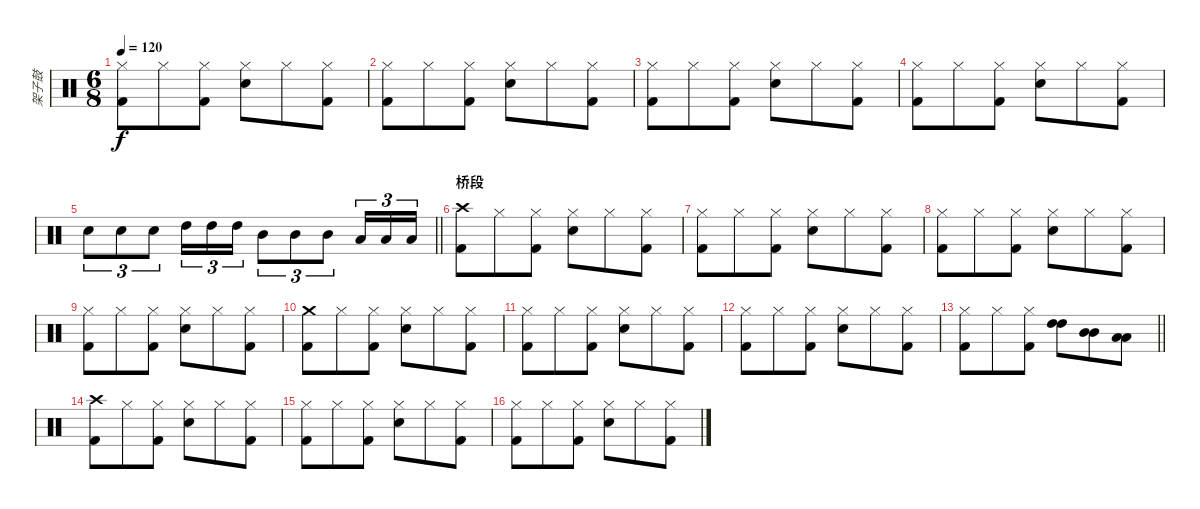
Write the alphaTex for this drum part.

\track ("架子鼓" "架子鼓") {instrument percussion}
\staff {score}
\articulation defaults
\ts (6 8)
\tempo 120
\clef neutral
\ks c
("Hi-Hat (closed)" "Kick (hit) 2").8{dy f} "Hi-Hat (closed)".8 ("Hi-Hat (closed)" "Kick (hit) 2").8 ("Hi-Hat (closed)" "Electric Snare (hit)").8 "Hi-Hat (closed)".8 ("Hi-Hat (closed)" "Kick (hit) 2").8 |
("Hi-Hat (closed)" "Kick (hit) 2").8 "Hi-Hat (closed)".8 ("Hi-Hat (closed)" "Kick (hit) 2").8 ("Hi-Hat (closed)" "Electric Snare (hit)").8 "Hi-Hat (closed)".8 ("Hi-Hat (closed)" "Kick (hit) 2").8 |
("Hi-Hat (closed)" "Kick (hit) 2").8 "Hi-Hat (closed)".8 ("Hi-Hat (closed)" "Kick (hit) 2").8 ("Hi-Hat (closed)" "Electric Snare (hit)").8 "Hi-Hat (closed)".8 ("Hi-Hat (closed)" "Kick (hit) 2").8 |
("Hi-Hat (closed)" "Kick (hit) 2").8 "Hi-Hat (closed)".8 ("Hi-Hat (closed)" "Kick (hit) 2").8 ("Hi-Hat (closed)" "Electric Snare (hit)").8 "Hi-Hat (closed)".8 ("Hi-Hat (closed)" "Kick (hit) 2").8 |
\barLineRight lightlight "Electric Snare (hit)".8{tu (3 2)} "Electric Snare (hit)".8{tu (3 2)} "Electric Snare (hit)".8{tu (3 2)} "High Tom (hit)".16{tu (3 2)} "High Tom (hit)".16{tu (3 2)} "High Tom (hit)".16{tu (3 2)} "Mid Tom (hit)".8{tu (3 2)} "Mid Tom (hit)".8{tu (3 2)} "Mid Tom (hit)".8{tu (3 2)} "Low Tom (hit)".16{tu (3 2)} "Low Tom (hit)".16{tu (3 2)} "Low Tom (hit)".16{tu (3 2)}
|
\section ("" "桥段")
("Crash high (hit)" "Kick (hit) 2").8 "Hi-Hat (closed)".8 ("Hi-Hat (closed)" "Kick (hit) 2").8 ("Hi-Hat (closed)" "Electric Snare (hit)").8 "Hi-Hat (closed)".8 ("Hi-Hat (closed)" "Kick (hit) 2").8 |
("Hi-Hat (closed)" "Kick (hit) 2").8 "Hi-Hat (closed)".8 ("Hi-Hat (closed)" "Kick (hit) 2").8 ("Hi-Hat (closed)" "Electric Snare (hit)").8 "Hi-Hat (closed)".8 ("Hi-Hat (closed)" "Kick (hit) 2").8 |
("Hi-Hat (closed)" "Kick (hit) 2").8 "Hi-Hat (closed)".8 ("Hi-Hat (closed)" "Kick (hit) 2").8 ("Hi-Hat (closed)" "Electric Snare (hit)").8 "Hi-Hat (closed)".8 ("Hi-Hat (closed)" "Kick (hit) 2").8 |
("Hi-Hat (closed)" "Kick (hit) 2").8 "Hi-Hat (closed)".8 ("Hi-Hat (closed)" "Kick (hit) 2").8 ("Hi-Hat (closed)" "Electric Snare (hit)").8 "Hi-Hat (closed)".8 ("Hi-Hat (closed)" "Kick (hit) 2").8 |
("Crash medium (hit)" "Kick (hit) 2").8 "Hi-Hat (closed)".8 ("Hi-Hat (closed)" "Kick (hit) 2").8 ("Hi-Hat (closed)" "Electric Snare (hit)").8 "Hi-Hat (closed)".8 ("Hi-Hat (closed)" "Kick (hit) 2").8 |
("Hi-Hat (closed)" "Kick (hit) 2").8 "Hi-Hat (closed)".8 ("Hi-Hat (closed)" "Kick (hit) 2").8 ("Hi-Hat (closed)" "Electric Snare (hit)").8 "Hi-Hat (closed)".8 ("Hi-Hat (closed)" "Kick (hit) 2").8 |
("Hi-Hat (closed)" "Kick (hit) 2").8 "Hi-Hat (closed)".8 ("Hi-Hat (closed)" "Kick (hit) 2").8 ("Hi-Hat (closed)" "Electric Snare (hit)").8 "Hi-Hat (closed)".8 ("Hi-Hat (closed)" "Kick (hit) 2").8 |
\barLineRight lightlight
("Hi-Hat (closed)" "Kick (hit) 2").8 "Hi-Hat (closed)".8 ("Hi-Hat (closed)" "Kick (hit) 2").8 ("High Tom (hit)" "High Tom (hit)").8 ("Mid Tom (hit)" "Mid Tom (hit)").8 ("Low Tom (hit)" "Low Tom (hit)").8 |
("Crash high (hit)" "Kick (hit) 2").8 "Hi-Hat (closed)".8 ("Hi-Hat (closed)" "Kick (hit) 2").8 ("Hi-Hat (closed)" "Electric Snare (hit)").8 "Hi-Hat (closed)".8 ("Hi-Hat (closed)" "Kick (hit) 2").8 |
("Hi-Hat (closed)" "Kick (hit) 2").8 "Hi-Hat (closed)".8 ("Hi-Hat (closed)" "Kick (hit) 2").8 ("Hi-Hat (closed)" "Electric Snare (hit)").8 "Hi-Hat (closed)".8 ("Hi-Hat (closed)" "Kick (hit) 2").8 |
("Hi-Hat (closed)" "Kick (hit) 2").8 "Hi-Hat (closed)".8 ("Hi-Hat (closed)" "Kick (hit) 2").8 ("Hi-Hat (closed)" "Electric Snare (hit)").8 "Hi-Hat (closed)".8 ("Hi-Hat (closed)" "Kick (hit) 2").8
